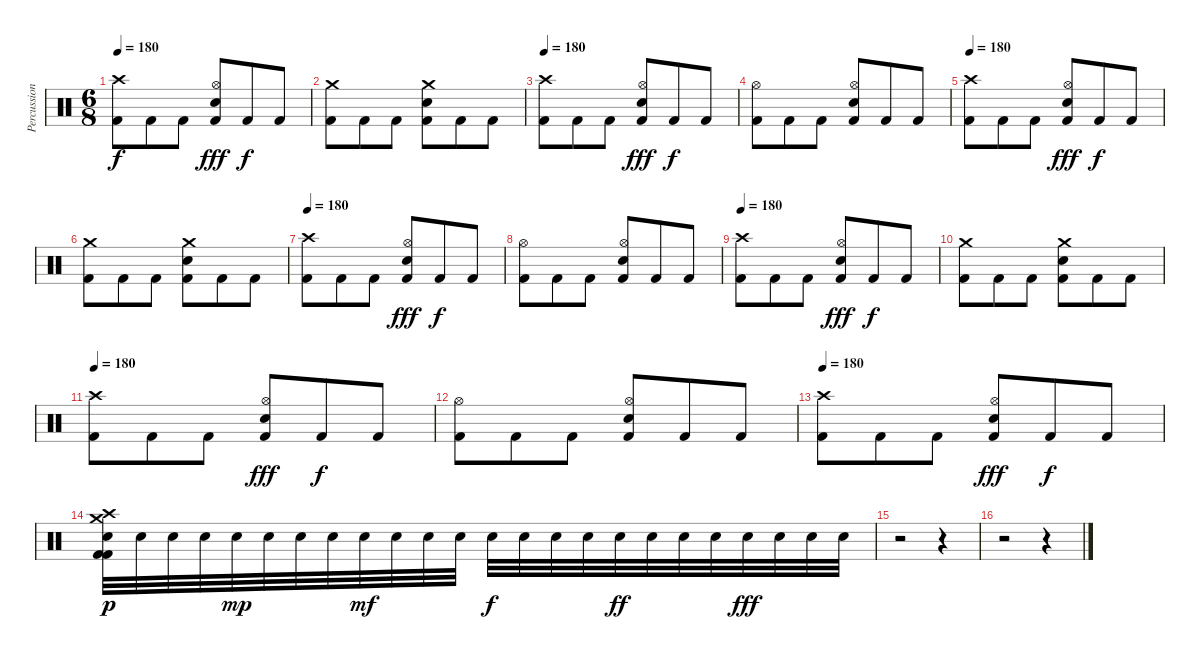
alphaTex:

\track ("Percussion" "Percussion") {instrument percussion}
\staff {score}
\articulation defaults
\ts (6 8)
\tempo 180
\clef neutral
\ks c
("Crash high (hit)" "Kick (hit) 2").8{dy f} "Kick (hit) 2".8 "Kick (hit) 2".8 ("Hi-Hat (open)" "Snare (hit) 2" "Kick (hit) 2").8{dy fff} "Kick (hit) 2".8{dy f} "Kick (hit) 2".8 |
("Crash medium (hit)" "Kick (hit) 2").8 "Kick (hit) 2".8 "Kick (hit) 2".8 ("Crash medium (hit)" "Snare (hit) 2" "Kick (hit) 2").8 "Kick (hit) 2".8 "Kick (hit) 2".8 |
\tempo 180
("Crash high (hit)" "Kick (hit) 2").8 "Kick (hit) 2".8 "Kick (hit) 2".8 ("Hi-Hat (open)" "Snare (hit) 2" "Kick (hit) 2").8{dy fff} "Kick (hit) 2".8{dy f} "Kick (hit) 2".8 |
("Hi-Hat (open)" "Kick (hit) 2").8 "Kick (hit) 2".8 "Kick (hit) 2".8 ("Hi-Hat (open)" "Snare (hit) 2" "Kick (hit) 2").8 "Kick (hit) 2".8 "Kick (hit) 2".8 |
\tempo 180
("Crash high (hit)" "Kick (hit) 2").8 "Kick (hit) 2".8 "Kick (hit) 2".8 ("Hi-Hat (open)" "Snare (hit) 2" "Kick (hit) 2").8{dy fff} "Kick (hit) 2".8{dy f} "Kick (hit) 2".8 |
("Crash medium (hit)" "Kick (hit) 2").8 "Kick (hit) 2".8 "Kick (hit) 2".8 ("Crash medium (hit)" "Snare (hit) 2" "Kick (hit) 2").8 "Kick (hit) 2".8 "Kick (hit) 2".8 |
\tempo 180
("Crash high (hit)" "Kick (hit) 2").8 "Kick (hit) 2".8 "Kick (hit) 2".8 ("Hi-Hat (open)" "Snare (hit) 2" "Kick (hit) 2").8{dy fff} "Kick (hit) 2".8{dy f} "Kick (hit) 2".8 |
("Hi-Hat (open)" "Kick (hit) 2").8 "Kick (hit) 2".8 "Kick (hit) 2".8 ("Hi-Hat (open)" "Snare (hit) 2" "Kick (hit) 2").8 "Kick (hit) 2".8 "Kick (hit) 2".8 |
\tempo 180
("Crash high (hit)" "Kick (hit) 2").8 "Kick (hit) 2".8 "Kick (hit) 2".8 ("Hi-Hat (open)" "Snare (hit) 2" "Kick (hit) 2").8{dy fff} "Kick (hit) 2".8{dy f} "Kick (hit) 2".8 |
("Crash medium (hit)" "Kick (hit) 2").8 "Kick (hit) 2".8 "Kick (hit) 2".8 ("Crash medium (hit)" "Snare (hit) 2" "Kick (hit) 2").8 "Kick (hit) 2".8 "Kick (hit) 2".8 |
\tempo 180
("Crash high (hit)" "Kick (hit) 2").8 "Kick (hit) 2".8 "Kick (hit) 2".8 ("Hi-Hat (open)" "Snare (hit) 2" "Kick (hit) 2").8{dy fff} "Kick (hit) 2".8{dy f} "Kick (hit) 2".8 |
("Hi-Hat (open)" "Kick (hit) 2").8 "Kick (hit) 2".8 "Kick (hit) 2".8 ("Hi-Hat (open)" "Snare (hit) 2" "Kick (hit) 2").8 "Kick (hit) 2".8 "Kick (hit) 2".8 |
\tempo 180
("Crash high (hit)" "Kick (hit) 2").8 "Kick (hit) 2".8 "Kick (hit) 2".8 ("Hi-Hat (open)" "Snare (hit) 2" "Kick (hit) 2").8{dy fff} "Kick (hit) 2".8{dy f} "Kick (hit) 2".8 |
("Crash high (hit)" "Crash medium (hit)" "Snare (hit) 2" "Kick (hit) 2" "Kick (hit) 2").32{dy p} "Snare (hit) 2".32 "Snare (hit) 2".32 "Snare (hit) 2".32 "Snare (hit) 2".32{dy mp} "Snare (hit) 2".32 "Snare (hit) 2".32 "Snare (hit) 2".32 "Snare (hit) 2".32{dy mf} "Snare (hit) 2".32 "Snare (hit) 2".32 "Snare (hit) 2".32 "Snare (hit) 2".32{dy f} "Snare (hit) 2".32 "Snare (hit) 2".32 "Snare (hit) 2".32 "Snare (hit) 2".32{dy ff} "Snare (hit) 2".32 "Snare (hit) 2".32 "Snare (hit) 2".32 "Snare (hit) 2".32{dy fff} "Snare (hit) 2".32 "Snare (hit) 2".32 "Snare (hit) 2".32 |
r.2 r.4 |
r.2 r.4
